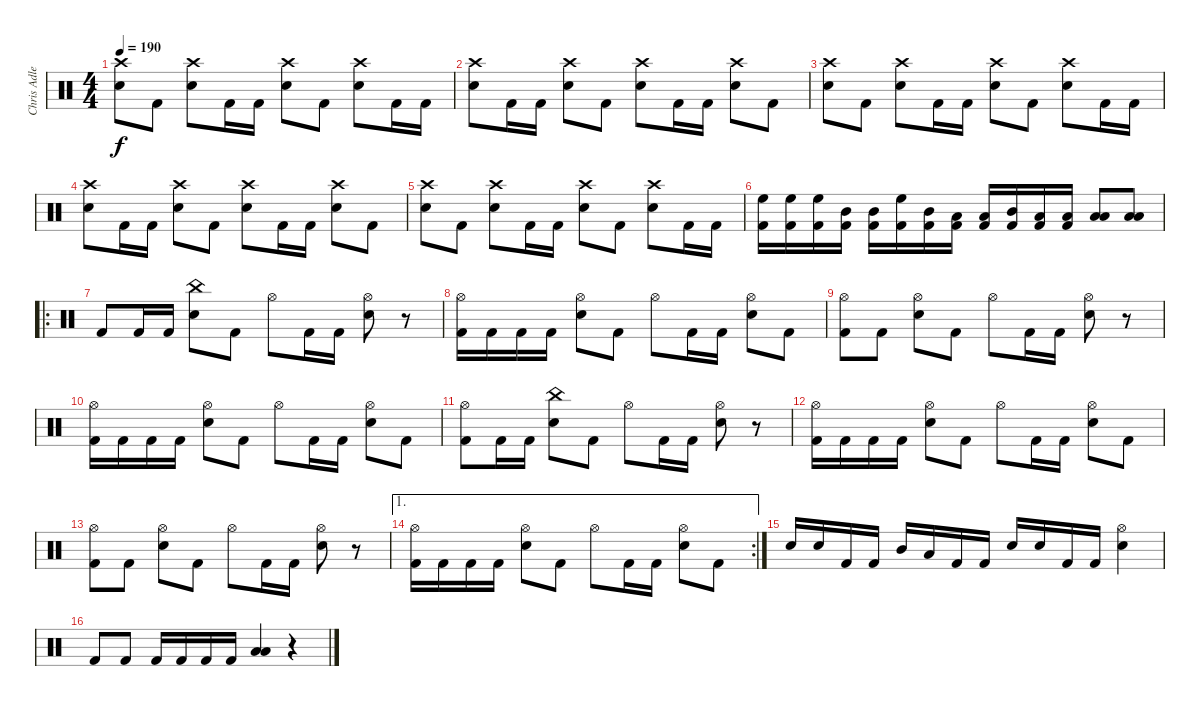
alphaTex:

\track ("Chris Adler" "Chris Adle") {instrument percussion}
\staff {score}
\articulation defaults
\ts (4 4)
\tempo 190
\clef neutral
\ks c
("Crash high (hit)" "Electric Snare (hit)").8{dy f} "Kick (hit) 2".8 ("Crash high (hit)" "Electric Snare (hit)").8 "Kick (hit) 2".16 "Kick (hit) 2".16 ("Crash high (hit)" "Electric Snare (hit)").8 "Kick (hit) 2".8 ("Crash high (hit)" "Electric Snare (hit)").8 "Kick (hit) 2".16 "Kick (hit) 2".16 |
("Crash high (hit)" "Electric Snare (hit)").8 "Kick (hit) 2".16 "Kick (hit) 2".16 ("Crash high (hit)" "Electric Snare (hit)").8 "Kick (hit) 2".8 ("Crash high (hit)" "Electric Snare (hit)").8 "Kick (hit) 2".16 "Kick (hit) 2".16 ("Crash high (hit)" "Electric Snare (hit)").8 "Kick (hit) 2".8 |
("Crash high (hit)" "Electric Snare (hit)").8 "Kick (hit) 2".8 ("Crash high (hit)" "Electric Snare (hit)").8 "Kick (hit) 2".16 "Kick (hit) 2".16 ("Crash high (hit)" "Electric Snare (hit)").8 "Kick (hit) 2".8 ("Crash high (hit)" "Electric Snare (hit)").8 "Kick (hit) 2".16 "Kick (hit) 2".16 |
("Crash high (hit)" "Electric Snare (hit)").8 "Kick (hit) 2".16 "Kick (hit) 2".16 ("Crash high (hit)" "Electric Snare (hit)").8 "Kick (hit) 2".8 ("Crash high (hit)" "Electric Snare (hit)").8 "Kick (hit) 2".16 "Kick (hit) 2".16 ("Crash high (hit)" "Electric Snare (hit)").8 "Kick (hit) 2".8 |
("Crash high (hit)" "Electric Snare (hit)").8 "Kick (hit) 2".8 ("Crash high (hit)" "Electric Snare (hit)").8 "Kick (hit) 2".16 "Kick (hit) 2".16 ("Crash high (hit)" "Electric Snare (hit)").8 "Kick (hit) 2".8 ("Crash high (hit)" "Electric Snare (hit)").8 "Kick (hit) 2".16 "Kick (hit) 2".16 |
("High Floor Tom (hit)" "Kick (hit) 2").16 ("High Floor Tom (hit)" "Kick (hit) 2").16 ("High Floor Tom (hit)" "Kick (hit) 2").16 ("Mid Tom (hit)" "Kick (hit) 2").16 ("Mid Tom (hit)" "Kick (hit) 2").16 ("High Floor Tom (hit)" "Kick (hit) 2").16 ("Mid Tom (hit)" "Kick (hit) 2").16 ("Low Tom (hit)" "Kick (hit) 2").16 ("Low Tom (hit)" "Kick (hit) 2").16 ("Mid Tom (hit)" "Kick (hit) 2").16 ("Low Tom (hit)" "Kick (hit) 2").16 ("Low Floor Tom (hit)" "Kick (hit) 2").16 ("Low Tom (hit)" "Low Floor Tom (hit)").8 ("Low Tom (hit)" "Low Floor Tom (hit)").8 |
\ro "Kick (hit) 2".8 "Kick (hit) 2".16 "Kick (hit) 2".16
("China (hit)" "Snare (hit) 2").8 "Kick (hit) 2".8 "Hi-Hat (open)".8 "Kick (hit) 2".16 "Kick (hit) 2".16 ("Hi-Hat (open)" "Snare (hit) 2").8 r.8 |
("Hi-Hat (open)" "Kick (hit) 2").16 "Kick (hit) 2".16 "Kick (hit) 2".16 "Kick (hit) 2".16 ("Hi-Hat (open)" "Snare (hit) 2").8 "Kick (hit) 2".8 "Hi-Hat (open)".8 "Kick (hit) 2".16 "Kick (hit) 2".16 ("Hi-Hat (open)" "Snare (hit) 2").8 "Kick (hit) 2".8 |
("Hi-Hat (open)" "Kick (hit) 2").8 "Kick (hit) 2".8 ("Hi-Hat (open)" "Snare (hit) 2").8 "Kick (hit) 2".8 "Hi-Hat (open)".8 "Kick (hit) 2".16 "Kick (hit) 2".16 ("Hi-Hat (open)" "Snare (hit) 2").8 r.8 |
("Hi-Hat (open)" "Kick (hit) 2").16 "Kick (hit) 2".16 "Kick (hit) 2".16 "Kick (hit) 2".16 ("Hi-Hat (open)" "Snare (hit) 2").8 "Kick (hit) 2".8 "Hi-Hat (open)".8 "Kick (hit) 2".16 "Kick (hit) 2".16 ("Hi-Hat (open)" "Snare (hit) 2").8 "Kick (hit) 2".8 |
("Hi-Hat (open)" "Kick (hit) 2").8 "Kick (hit) 2".16 "Kick (hit) 2".16 ("China (hit)" "Snare (hit) 2").8 "Kick (hit) 2".8 "Hi-Hat (open)".8 "Kick (hit) 2".16 "Kick (hit) 2".16 ("Hi-Hat (open)" "Snare (hit) 2").8 r.8 |
("Hi-Hat (open)" "Kick (hit) 2").16 "Kick (hit) 2".16 "Kick (hit) 2".16 "Kick (hit) 2".16 ("Hi-Hat (open)" "Snare (hit) 2").8 "Kick (hit) 2".8 "Hi-Hat (open)".8 "Kick (hit) 2".16 "Kick (hit) 2".16 ("Hi-Hat (open)" "Snare (hit) 2").8 "Kick (hit) 2".8 |
("Hi-Hat (open)" "Kick (hit) 2").8 "Kick (hit) 2".8 ("Hi-Hat (open)" "Snare (hit) 2").8 "Kick (hit) 2".8 "Hi-Hat (open)".8 "Kick (hit) 2".16 "Kick (hit) 2".16 ("Hi-Hat (open)" "Snare (hit) 2").8 r.8 |
\ae 1
\rc 2
("Hi-Hat (open)" "Kick (hit) 2").16 "Kick (hit) 2".16 "Kick (hit) 2".16 "Kick (hit) 2".16 ("Hi-Hat (open)" "Snare (hit) 2").8 "Kick (hit) 2".8 "Hi-Hat (open)".8 "Kick (hit) 2".16 "Kick (hit) 2".16 ("Hi-Hat (open)" "Snare (hit) 2").8 "Kick (hit) 2".8 |
"Snare (hit) 2".16 "Snare (hit) 2".16 "Kick (hit) 2".16 "Kick (hit) 2".16 "Mid Tom (hit)".16 "Low Tom (hit)".16 "Kick (hit) 2".16 "Kick (hit) 2".16 "Snare (hit) 2".16 "Snare (hit) 2".16 "Kick (hit) 2".16 "Kick (hit) 2".16 ("Hi-Hat (open)" "Snare (hit) 2").4 |
"Kick (hit) 2".8 "Kick (hit) 2".8 "Kick (hit) 2".16 "Kick (hit) 2".16 "Kick (hit) 2".16 "Kick (hit) 2".16 ("Low Tom (hit)" "Low Floor Tom (hit)").4 r.4
